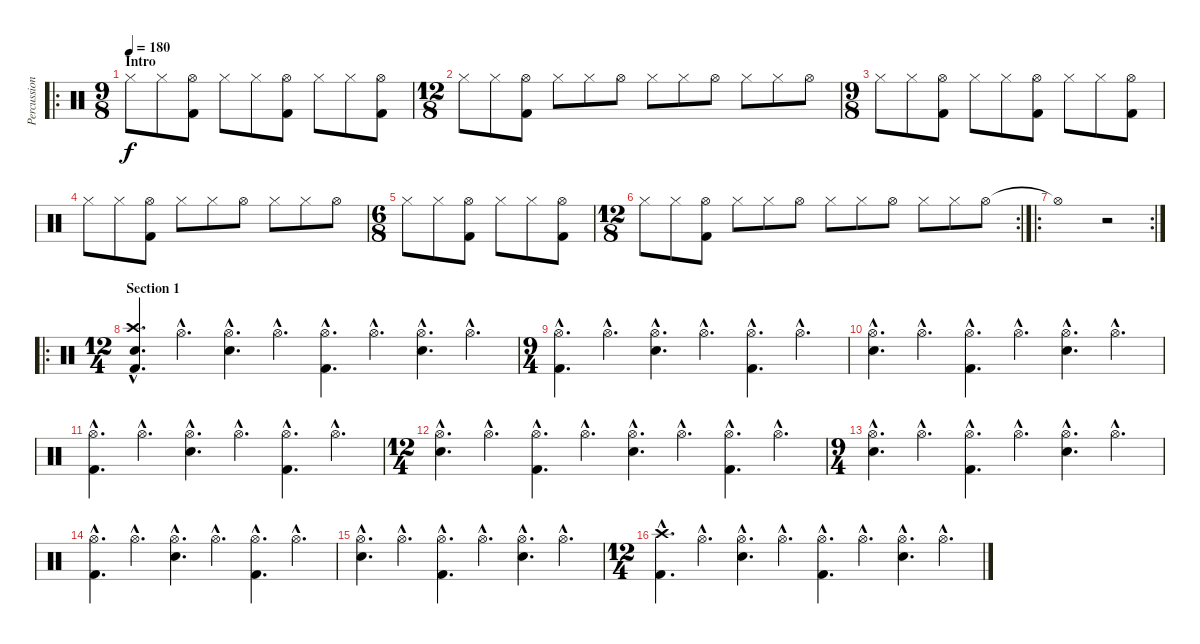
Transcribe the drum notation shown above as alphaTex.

\track ("Percussion" "Percussion") {instrument percussion}
\staff {score}
\articulation defaults
\ro
\ts (9 8)
\section ("" "Intro")
\tempo 180
\clef neutral
\ks c "Hi-Hat (closed)".8{dy f} "Hi-Hat (closed)".8
("Hi-Hat (open)" "Kick (hit) 2").8 "Hi-Hat (closed)".8 "Hi-Hat (closed)".8 ("Hi-Hat (open)" "Kick (hit) 2").8 "Hi-Hat (closed)".8 "Hi-Hat (closed)".8 ("Hi-Hat (open)" "Kick (hit) 2").8 |
\ts (12 8)
"Hi-Hat (closed)".8 "Hi-Hat (closed)".8 ("Hi-Hat (open)" "Kick (hit) 2").8 "Hi-Hat (closed)".8 "Hi-Hat (closed)".8 "Hi-Hat (open)".8 "Hi-Hat (closed)".8 "Hi-Hat (closed)".8 "Hi-Hat (open)".8 "Hi-Hat (closed)".8 "Hi-Hat (closed)".8 "Hi-Hat (open)".8 |
\ts (9 8)
"Hi-Hat (closed)".8 "Hi-Hat (closed)".8 ("Hi-Hat (open)" "Kick (hit) 2").8 "Hi-Hat (closed)".8 "Hi-Hat (closed)".8 ("Hi-Hat (open)" "Kick (hit) 2").8 "Hi-Hat (closed)".8 "Hi-Hat (closed)".8 ("Hi-Hat (open)" "Kick (hit) 2").8 |
"Hi-Hat (closed)".8 "Hi-Hat (closed)".8 ("Hi-Hat (open)" "Kick (hit) 2").8 "Hi-Hat (closed)".8 "Hi-Hat (closed)".8 "Hi-Hat (open)".8 "Hi-Hat (closed)".8 "Hi-Hat (closed)".8 "Hi-Hat (open)".8 |
\ts (6 8)
"Hi-Hat (closed)".8 "Hi-Hat (closed)".8 ("Hi-Hat (open)" "Kick (hit) 2").8 "Hi-Hat (closed)".8 "Hi-Hat (closed)".8 ("Hi-Hat (open)" "Kick (hit) 2").8 |
\rc 2
\ts (12 8)
"Hi-Hat (closed)".8 "Hi-Hat (closed)".8 ("Hi-Hat (open)" "Kick (hit) 2").8 "Hi-Hat (closed)".8 "Hi-Hat (closed)".8 "Hi-Hat (open)".8 "Hi-Hat (closed)".8 "Hi-Hat (closed)".8 "Hi-Hat (open)".8 "Hi-Hat (closed)".8 "Hi-Hat (closed)".8 "Hi-Hat (open)".8 |
\ro
\rc 2 "Hi-Hat (open)"{t}.1
r.2 |
\ro
\ts (12 4)
\section ("" "Section 1")
("Crash high (hit)"{hac} "Electric Snare (hit)"{hac} "Kick (hit) 2"{hac}).4{d} "Hi-Hat (open)"{hac}.4{d} ("Hi-Hat (open)"{hac} "Electric Snare (hit)"{hac}).4{d} "Hi-Hat (open)"{hac}.4{d} ("Hi-Hat (open)"{hac} "Kick (hit) 2"{hac}).4{d} "Hi-Hat (open)"{hac}.4{d} ("Hi-Hat (open)"{hac} "Electric Snare (hit)"{hac}).4{d} "Hi-Hat (open)"{hac}.4{d} |
\ts (9 4)
("Hi-Hat (open)"{hac} "Kick (hit) 2"{hac}).4{d} "Hi-Hat (open)"{hac}.4{d} ("Hi-Hat (open)"{hac} "Electric Snare (hit)"{hac}).4{d} "Hi-Hat (open)"{hac}.4{d} ("Hi-Hat (open)"{hac} "Kick (hit) 2"{hac}).4{d} "Hi-Hat (open)"{hac}.4{d} |
("Hi-Hat (open)"{hac} "Electric Snare (hit)"{hac}).4{d} "Hi-Hat (open)"{hac}.4{d} ("Hi-Hat (open)"{hac} "Kick (hit) 2"{hac}).4{d} "Hi-Hat (open)"{hac}.4{d} ("Hi-Hat (open)"{hac} "Electric Snare (hit)"{hac}).4{d} "Hi-Hat (open)"{hac}.4{d} |
("Hi-Hat (open)"{hac} "Kick (hit) 2"{hac}).4{d} "Hi-Hat (open)"{hac}.4{d} ("Hi-Hat (open)"{hac} "Electric Snare (hit)"{hac}).4{d} "Hi-Hat (open)"{hac}.4{d} ("Hi-Hat (open)"{hac} "Kick (hit) 2"{hac}).4{d} "Hi-Hat (open)"{hac}.4{d} |
\ts (12 4)
("Hi-Hat (open)"{hac} "Electric Snare (hit)"{hac}).4{d} "Hi-Hat (open)"{hac}.4{d} ("Hi-Hat (open)"{hac} "Kick (hit) 2"{hac}).4{d} "Hi-Hat (open)"{hac}.4{d} ("Hi-Hat (open)"{hac} "Electric Snare (hit)"{hac}).4{d} "Hi-Hat (open)"{hac}.4{d} ("Hi-Hat (open)"{hac} "Kick (hit) 2"{hac}).4{d} "Hi-Hat (open)"{hac}.4{d} |
\ts (9 4)
("Hi-Hat (open)"{hac} "Electric Snare (hit)"{hac}).4{d} "Hi-Hat (open)"{hac}.4{d} ("Hi-Hat (open)"{hac} "Kick (hit) 2"{hac}).4{d} "Hi-Hat (open)"{hac}.4{d} ("Hi-Hat (open)"{hac} "Electric Snare (hit)"{hac}).4{d} "Hi-Hat (open)"{hac}.4{d} |
("Hi-Hat (open)"{hac} "Kick (hit) 2"{hac}).4{d} "Hi-Hat (open)"{hac}.4{d} ("Hi-Hat (open)"{hac} "Electric Snare (hit)"{hac}).4{d} "Hi-Hat (open)"{hac}.4{d} ("Hi-Hat (open)"{hac} "Kick (hit) 2"{hac}).4{d} "Hi-Hat (open)"{hac}.4{d} |
("Hi-Hat (open)"{hac} "Electric Snare (hit)"{hac}).4{d} "Hi-Hat (open)"{hac}.4{d} ("Hi-Hat (open)"{hac} "Kick (hit) 2"{hac}).4{d} "Hi-Hat (open)"{hac}.4{d} ("Hi-Hat (open)"{hac} "Electric Snare (hit)"{hac}).4{d} "Hi-Hat (open)"{hac}.4{d} |
\ts (12 4)
("Crash high (hit)"{hac} "Kick (hit) 2"{hac}).4{d} "Hi-Hat (open)"{hac}.4{d} ("Hi-Hat (open)"{hac} "Electric Snare (hit)"{hac}).4{d} "Hi-Hat (open)"{hac}.4{d} ("Hi-Hat (open)"{hac} "Kick (hit) 2"{hac}).4{d} "Hi-Hat (open)"{hac}.4{d} ("Hi-Hat (open)"{hac} "Electric Snare (hit)"{hac}).4{d} "Hi-Hat (open)"{hac}.4{d}
